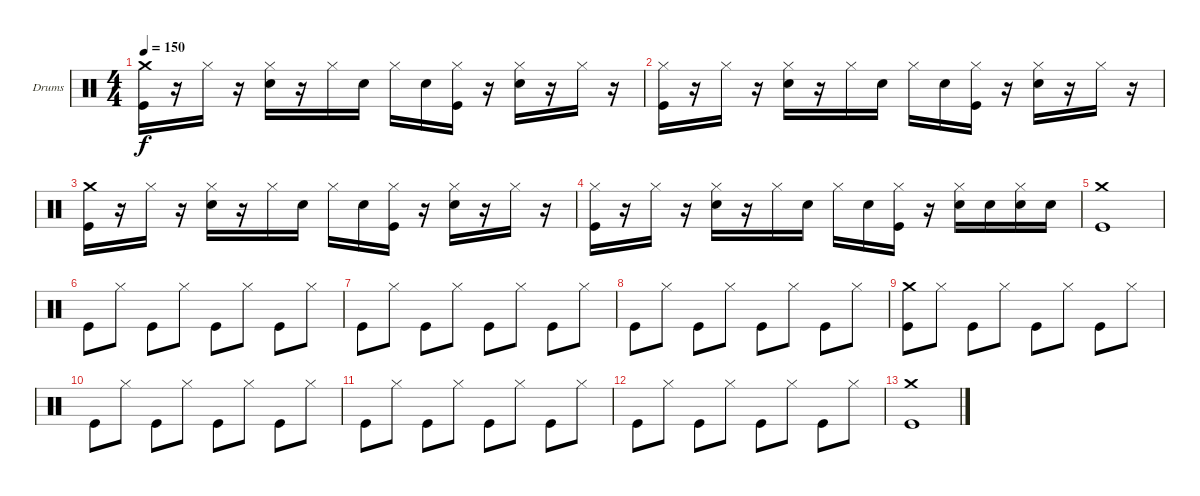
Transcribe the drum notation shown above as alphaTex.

\defaultSystemsLayout 4
\bracketExtendMode groupsimilarinstruments
\firstSystemTrackNameOrientation horizontal
\otherSystemsTrackNameOrientation horizontal
\track ("Drumkit" "Drums") {instrument percussion}
\staff {score}
\articulation defaults
\ts (4 4)
\tempo 150
\clef neutral
\ks c
("Kick (hit)" "Crash medium (hit)").16{dy f} r.16 "Hi-Hat (closed)".16 r.16 ("Snare (hit) 2" "Hi-Hat (closed)").16 r.16 "Hi-Hat (closed)".16 "Snare (hit) 2".16 "Hi-Hat (closed)".16 "Snare (hit) 2".16 ("Kick (hit)" "Hi-Hat (closed)").16 r.16 ("Snare (hit) 2" "Hi-Hat (closed)").16 r.16 "Hi-Hat (closed)".16 r.16 |
("Kick (hit)" "Hi-Hat (closed)").16 r.16 "Hi-Hat (closed)".16 r.16 ("Snare (hit) 2" "Hi-Hat (closed)").16 r.16 "Hi-Hat (closed)".16 "Snare (hit) 2".16 "Hi-Hat (closed)".16 "Snare (hit) 2".16 ("Kick (hit)" "Hi-Hat (closed)").16 r.16 ("Snare (hit) 2" "Hi-Hat (closed)").16 r.16 "Hi-Hat (closed)".16 r.16 |
("Kick (hit)" "Crash medium (hit)").16 r.16 "Hi-Hat (closed)".16 r.16 ("Snare (hit) 2" "Hi-Hat (closed)").16 r.16 "Hi-Hat (closed)".16 "Snare (hit) 2".16 "Hi-Hat (closed)".16 "Snare (hit) 2".16 ("Kick (hit)" "Hi-Hat (closed)").16 r.16 ("Snare (hit) 2" "Hi-Hat (closed)").16 r.16 "Hi-Hat (closed)".16 r.16 |
("Kick (hit)" "Hi-Hat (closed)").16 r.16 "Hi-Hat (closed)".16 r.16 ("Snare (hit) 2" "Hi-Hat (closed)").16 r.16 "Hi-Hat (closed)".16 "Snare (hit) 2".16 "Hi-Hat (closed)".16 "Snare (hit) 2".16 ("Kick (hit)" "Hi-Hat (closed)").16 r.16 ("Snare (hit) 2" "Hi-Hat (closed)").16 "Snare (hit) 2".16 ("Snare (hit) 2" "Hi-Hat (closed)").16 "Snare (hit) 2".16 |
("Kick (hit)" "Crash medium (hit)").1 |
"Kick (hit)".8 "Hi-Hat (closed)".8 "Kick (hit)".8 "Hi-Hat (closed)".8 "Kick (hit)".8 "Hi-Hat (closed)".8 "Kick (hit)".8 "Hi-Hat (closed)".8 |
"Kick (hit)".8 "Hi-Hat (closed)".8 "Kick (hit)".8 "Hi-Hat (closed)".8 "Kick (hit)".8 "Hi-Hat (closed)".8 "Kick (hit)".8 "Hi-Hat (closed)".8 |
"Kick (hit)".8 "Hi-Hat (closed)".8 "Kick (hit)".8 "Hi-Hat (closed)".8 "Kick (hit)".8 "Hi-Hat (closed)".8 "Kick (hit)".8 "Hi-Hat (closed)".8 |
("Kick (hit)" "Crash medium (hit)").8 "Hi-Hat (closed)".8 "Kick (hit)".8 "Hi-Hat (closed)".8 "Kick (hit)".8 "Hi-Hat (closed)".8 "Kick (hit)".8 "Hi-Hat (closed)".8 |
"Kick (hit)".8 "Hi-Hat (closed)".8 "Kick (hit)".8 "Hi-Hat (closed)".8 "Kick (hit)".8 "Hi-Hat (closed)".8 "Kick (hit)".8 "Hi-Hat (closed)".8 |
"Kick (hit)".8 "Hi-Hat (closed)".8 "Kick (hit)".8 "Hi-Hat (closed)".8 "Kick (hit)".8 "Hi-Hat (closed)".8 "Kick (hit)".8 "Hi-Hat (closed)".8 |
"Kick (hit)".8 "Hi-Hat (closed)".8 "Kick (hit)".8 "Hi-Hat (closed)".8 "Kick (hit)".8 "Hi-Hat (closed)".8 "Kick (hit)".8 "Hi-Hat (closed)".8 |
("Kick (hit)" "Crash medium (hit)").1
